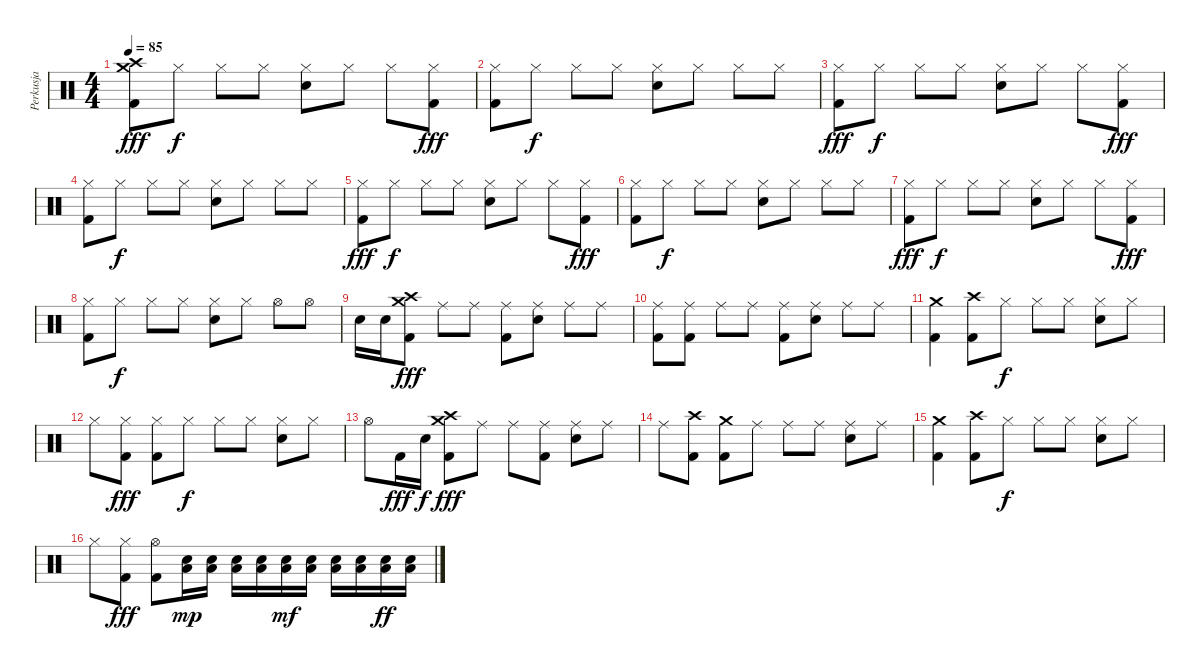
\track ("Perkusja" "Perkusja") {instrument percussion}
\staff {score}
\articulation defaults
\ts (4 4)
\tempo 85
\clef neutral
\ks c
("Crash medium (hit)" "Crash high (hit)" "Kick (hit) 2").8{dy fff} "Hi-Hat (closed)".8{dy f} "Hi-Hat (closed)".8 "Hi-Hat (closed)".8 ("Hi-Hat (closed)" "Electric Snare (hit)").8 "Hi-Hat (closed)".8 "Hi-Hat (closed)".8 ("Hi-Hat (closed)" "Kick (hit) 2").8{dy fff} |
("Hi-Hat (closed)" "Kick (hit) 2").8 "Hi-Hat (closed)".8{dy f} "Hi-Hat (closed)".8 "Hi-Hat (closed)".8 ("Hi-Hat (closed)" "Electric Snare (hit)").8 "Hi-Hat (closed)".8 "Hi-Hat (closed)".8 "Hi-Hat (closed)".8 |
("Hi-Hat (closed)" "Kick (hit) 2").8{dy fff} "Hi-Hat (closed)".8{dy f} "Hi-Hat (closed)".8 "Hi-Hat (closed)".8 ("Hi-Hat (closed)" "Electric Snare (hit)").8 "Hi-Hat (closed)".8 "Hi-Hat (closed)".8 ("Hi-Hat (closed)" "Kick (hit) 2").8{dy fff} |
("Hi-Hat (closed)" "Kick (hit) 2").8 "Hi-Hat (closed)".8{dy f} "Hi-Hat (closed)".8 "Hi-Hat (closed)".8 ("Hi-Hat (closed)" "Electric Snare (hit)").8 "Hi-Hat (closed)".8 "Hi-Hat (closed)".8 "Hi-Hat (closed)".8 |
("Hi-Hat (closed)" "Kick (hit) 2").8{dy fff} "Hi-Hat (closed)".8{dy f} "Hi-Hat (closed)".8 "Hi-Hat (closed)".8 ("Hi-Hat (closed)" "Electric Snare (hit)").8 "Hi-Hat (closed)".8 "Hi-Hat (closed)".8 ("Hi-Hat (closed)" "Kick (hit) 2").8{dy fff} |
("Hi-Hat (closed)" "Kick (hit) 2").8 "Hi-Hat (closed)".8{dy f} "Hi-Hat (closed)".8 "Hi-Hat (closed)".8 ("Hi-Hat (closed)" "Electric Snare (hit)").8 "Hi-Hat (closed)".8 "Hi-Hat (closed)".8 "Hi-Hat (closed)".8 |
("Hi-Hat (closed)" "Kick (hit) 2").8{dy fff} "Hi-Hat (closed)".8{dy f} "Hi-Hat (closed)".8 "Hi-Hat (closed)".8 ("Hi-Hat (closed)" "Electric Snare (hit)").8 "Hi-Hat (closed)".8 "Hi-Hat (closed)".8 ("Hi-Hat (closed)" "Kick (hit) 2").8{dy fff} |
("Hi-Hat (closed)" "Kick (hit) 2").8 "Hi-Hat (closed)".8{dy f} "Hi-Hat (closed)".8 "Hi-Hat (closed)".8 ("Hi-Hat (closed)" "Electric Snare (hit)").8 "Hi-Hat (closed)".8 "Hi-Hat (open)".8 "Hi-Hat (open)".8 |
"Electric Snare (hit)".16 "Electric Snare (hit)".16 ("Crash medium (hit)" "Crash high (hit)" "Kick (hit) 2").8{dy fff} "Ride (middle)".8 "Ride (middle)".8 ("Ride (middle)" "Kick (hit) 2").8 ("Ride (middle)" "Electric Snare (hit)").8 "Ride (middle)".8 "Ride (middle)".8 |
("Ride (middle)" "Kick (hit) 2").8 ("Ride (middle)" "Kick (hit) 2").8 "Ride (middle)".8 "Ride (middle)".8 ("Ride (middle)" "Kick (hit) 2").8 ("Ride (middle)" "Electric Snare (hit)").8 "Ride (middle)".8 "Ride (middle)".8 |
("Crash medium (hit)" "Kick (hit) 2").4 ("Crash high (hit)" "Kick (hit) 2").8 "Hi-Hat (closed)".8{dy f} "Hi-Hat (closed)".8 "Hi-Hat (closed)".8 ("Hi-Hat (closed)" "Electric Snare (hit)").8 "Hi-Hat (closed)".8 |
"Hi-Hat (closed)".8 ("Hi-Hat (closed)" "Kick (hit) 2").8{dy fff} ("Hi-Hat (closed)" "Kick (hit) 2").8 "Hi-Hat (closed)".8{dy f} "Hi-Hat (closed)".8 "Hi-Hat (closed)".8 ("Hi-Hat (closed)" "Electric Snare (hit)").8 "Hi-Hat (closed)".8 |
"Hi-Hat (open)".8 "Kick (hit) 2".16{dy fff} "Electric Snare (hit)".16{dy f} ("Crash medium (hit)" "Crash high (hit)" "Kick (hit) 2").8{dy fff} "Ride (middle)".8 "Ride (middle)".8 ("Ride (middle)" "Kick (hit) 2").8 ("Ride (middle)" "Electric Snare (hit)").8 "Ride (middle)".8 |
"Ride (middle)".8 ("Crash high (hit)" "Kick (hit) 2").8 ("Crash medium (hit)" "Kick (hit) 2").8 "Ride (middle)".8 "Ride (middle)".8 "Ride (middle)".8 ("Ride (middle)" "Electric Snare (hit)").8 "Ride (middle)".8 |
("Crash medium (hit)" "Kick (hit) 2").4 ("Crash high (hit)" "Kick (hit) 2").8 "Hi-Hat (closed)".8{dy f} "Hi-Hat (closed)".8 "Hi-Hat (closed)".8 ("Hi-Hat (closed)" "Electric Snare (hit)").8 "Hi-Hat (closed)".8 |
"Hi-Hat (closed)".8 ("Hi-Hat (closed)" "Kick (hit) 2").8{dy fff} ("Hi-Hat (open)" "Kick (hit) 2").8 ("Low Tom (hit)" "Electric Snare (hit)").16{dy mp} ("Low Tom (hit)" "Electric Snare (hit)").16 ("Low Tom (hit)" "Electric Snare (hit)").16 ("Low Tom (hit)" "Electric Snare (hit)").16 ("Low Tom (hit)" "Electric Snare (hit)").16{dy mf} ("Low Tom (hit)" "Electric Snare (hit)").16 ("Low Tom (hit)" "Electric Snare (hit)").16 ("Low Tom (hit)" "Electric Snare (hit)").16 ("Low Tom (hit)" "Electric Snare (hit)").16{dy ff} ("Low Tom (hit)" "Electric Snare (hit)").16
